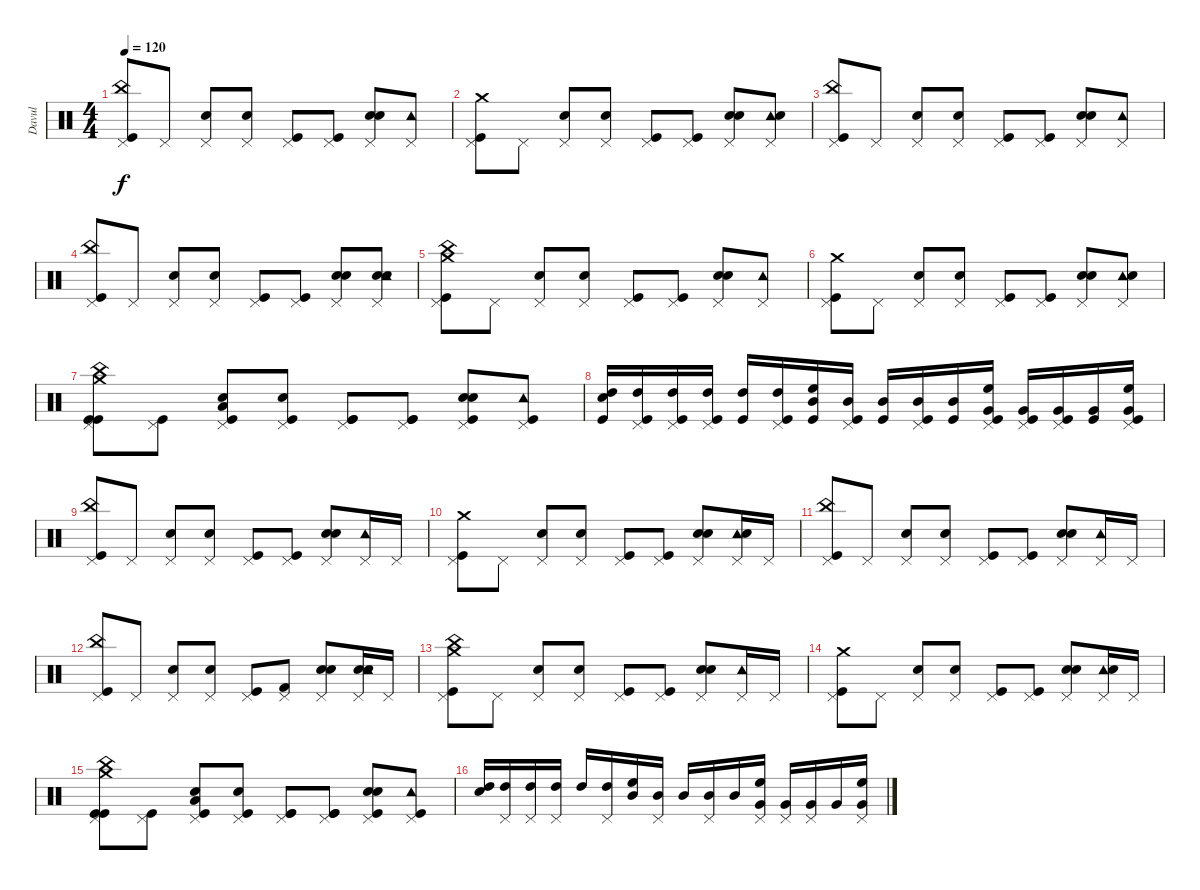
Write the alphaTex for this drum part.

\track ("Davul" "Davul") {instrument percussion}
\staff {score}
\articulation defaults
\ts (4 4)
\tempo 120
\clef neutral
\ks c
("Pedal Hi-Hat (hit)" "China (hit)" "Kick (hit)").8{dy f} "Pedal Hi-Hat (hit)".8 ("Pedal Hi-Hat (hit)" "Snare (hit) 2").8 ("Pedal Hi-Hat (hit)" "Hand Clap (hit)").8 ("Pedal Hi-Hat (hit)" "Kick (hit)").8 ("Pedal Hi-Hat (hit)" "Kick (hit)").8 ("Pedal Hi-Hat (hit)" "Hand Clap (hit)" "Snare (hit) 2").8 ("Pedal Hi-Hat (hit)" "Tambourine (hit)").8 |
("Pedal Hi-Hat (hit)" "Crash medium (hit)" "Kick (hit)").8 "Pedal Hi-Hat (hit)".8 ("Pedal Hi-Hat (hit)" "Snare (hit) 2").8 ("Pedal Hi-Hat (hit)" "Hand Clap (hit)").8 ("Pedal Hi-Hat (hit)" "Kick (hit)").8 ("Pedal Hi-Hat (hit)" "Kick (hit)").8 ("Pedal Hi-Hat (hit)" "Hand Clap (hit)" "Snare (hit) 2").8 ("Pedal Hi-Hat (hit)" "Tambourine (hit)" "Snare (hit) 2").8 |
("Pedal Hi-Hat (hit)" "China (hit)" "Kick (hit)").8 "Pedal Hi-Hat (hit)".8 ("Pedal Hi-Hat (hit)" "Snare (hit) 2").8 ("Pedal Hi-Hat (hit)" "Hand Clap (hit)").8 ("Pedal Hi-Hat (hit)" "Kick (hit)").8 ("Pedal Hi-Hat (hit)" "Kick (hit)").8 ("Pedal Hi-Hat (hit)" "Hand Clap (hit)" "Snare (hit) 2").8 ("Pedal Hi-Hat (hit)" "Tambourine (hit)").8 |
("Pedal Hi-Hat (hit)" "China (hit)" "Kick (hit)").8 "Pedal Hi-Hat (hit)".8 ("Pedal Hi-Hat (hit)" "Snare (hit) 2").8 ("Pedal Hi-Hat (hit)" "Hand Clap (hit)").8 ("Pedal Hi-Hat (hit)" "Kick (hit)").8 ("Pedal Hi-Hat (hit)" "Kick (hit)").8 ("Pedal Hi-Hat (hit)" "Hand Clap (hit)" "Snare (hit) 2").8 ("Pedal Hi-Hat (hit)" "Hand Clap (hit)" "Tambourine (hit)" "Snare (hit) 2").8 |
("Pedal Hi-Hat (hit)" "China (hit)" "Crash medium (hit)" "Kick (hit)").8 "Pedal Hi-Hat (hit)".8 ("Pedal Hi-Hat (hit)" "Snare (hit) 2").8 ("Pedal Hi-Hat (hit)" "Hand Clap (hit)").8 ("Pedal Hi-Hat (hit)" "Kick (hit)").8 ("Pedal Hi-Hat (hit)" "Kick (hit)").8 ("Pedal Hi-Hat (hit)" "Hand Clap (hit)" "Snare (hit) 2").8 ("Pedal Hi-Hat (hit)" "Tambourine (hit)").8 |
("Pedal Hi-Hat (hit)" "Crash medium (hit)" "Kick (hit)").8 "Pedal Hi-Hat (hit)".8 ("Pedal Hi-Hat (hit)" "Snare (hit) 2").8 ("Pedal Hi-Hat (hit)" "Hand Clap (hit)").8 ("Pedal Hi-Hat (hit)" "Kick (hit)").8 ("Pedal Hi-Hat (hit)" "Kick (hit)").8 ("Pedal Hi-Hat (hit)" "Hand Clap (hit)" "Snare (hit) 2").8 ("Pedal Hi-Hat (hit)" "Tambourine (hit)" "Snare (hit) 2").8 |
("Pedal Hi-Hat (hit)" "Kick (hit)" "China (hit)" "Crash medium (hit)" "Kick (hit)").8 ("Pedal Hi-Hat (hit)" "Kick (hit)").8 ("Pedal Hi-Hat (hit)" "Kick (hit)" "Snare (hit) 2" "Low Floor Tom (hit)").8 ("Pedal Hi-Hat (hit)" "Kick (hit)" "Hand Clap (hit)").8 ("Pedal Hi-Hat (hit)" "Kick (hit)" "Kick (hit)").8 ("Pedal Hi-Hat (hit)" "Kick (hit)" "Kick (hit)").8 ("Pedal Hi-Hat (hit)" "Kick (hit)" "Hand Clap (hit)" "Snare (hit) 2").8 ("Pedal Hi-Hat (hit)" "Kick (hit)" "Tambourine (hit)").8 |
("High Tom (hit)" "Snare (hit) 2" "Kick (hit)").16 ("Pedal Hi-Hat (hit)" "High Tom (hit)" "Kick (hit)").16 ("Pedal Hi-Hat (hit)" "High Tom (hit)" "Kick (hit)").16 ("Pedal Hi-Hat (hit)" "High Tom (hit)" "Kick (hit)").16 ("High Tom (hit)" "Kick (hit)").16 ("Pedal Hi-Hat (hit)" "High Tom (hit)" "Kick (hit)").16 ("Mid Tom (hit)" "High Floor Tom (hit)" "Kick (hit)").16 ("Pedal Hi-Hat (hit)" "Mid Tom (hit)" "Kick (hit)").16 ("Mid Tom (hit)" "Kick (hit)").16 ("Pedal Hi-Hat (hit)" "Mid Tom (hit)" "Kick (hit)").16 ("Mid Tom (hit)" "Kick (hit)").16 ("Pedal Hi-Hat (hit)" "Very Low Tom (hit)" "High Floor Tom (hit)" "Kick (hit)").16 ("Pedal Hi-Hat (hit)" "Very Low Tom (hit)" "Kick (hit)").16 ("Pedal Hi-Hat (hit)" "Very Low Tom (hit)" "Kick (hit)").16 ("Very Low Tom (hit)" "Kick (hit)").16 ("Pedal Hi-Hat (hit)" "Very Low Tom (hit)" "High Floor Tom (hit)" "Kick (hit)").16 |
("Pedal Hi-Hat (hit)" "China (hit)" "Kick (hit)").8 "Pedal Hi-Hat (hit)".8 ("Pedal Hi-Hat (hit)" "Snare (hit) 2").8 ("Pedal Hi-Hat (hit)" "Hand Clap (hit)").8 ("Pedal Hi-Hat (hit)" "Kick (hit)").8 ("Pedal Hi-Hat (hit)" "Kick (hit)").8 ("Pedal Hi-Hat (hit)" "Hand Clap (hit)" "Snare (hit) 2").8 ("Pedal Hi-Hat (hit)" "Tambourine (hit)").16 "Pedal Hi-Hat (hit)".16 |
("Pedal Hi-Hat (hit)" "Crash medium (hit)" "Kick (hit)").8 "Pedal Hi-Hat (hit)".8 ("Pedal Hi-Hat (hit)" "Snare (hit) 2").8 ("Pedal Hi-Hat (hit)" "Hand Clap (hit)").8 ("Pedal Hi-Hat (hit)" "Kick (hit)").8 ("Pedal Hi-Hat (hit)" "Kick (hit)").8 ("Pedal Hi-Hat (hit)" "Hand Clap (hit)" "Snare (hit) 2").8 ("Pedal Hi-Hat (hit)" "Tambourine (hit)" "Snare (hit) 2").16 "Pedal Hi-Hat (hit)".16 |
("Pedal Hi-Hat (hit)" "China (hit)" "Kick (hit)").8 "Pedal Hi-Hat (hit)".8 ("Pedal Hi-Hat (hit)" "Snare (hit) 2").8 ("Pedal Hi-Hat (hit)" "Hand Clap (hit)").8 ("Pedal Hi-Hat (hit)" "Kick (hit)").8 ("Pedal Hi-Hat (hit)" "Kick (hit)").8 ("Pedal Hi-Hat (hit)" "Hand Clap (hit)" "Snare (hit) 2").8 ("Pedal Hi-Hat (hit)" "Tambourine (hit)").16 "Pedal Hi-Hat (hit)".16 |
("Pedal Hi-Hat (hit)" "China (hit)" "Kick (hit)").8 "Pedal Hi-Hat (hit)".8 ("Pedal Hi-Hat (hit)" "Snare (hit) 2").8 ("Pedal Hi-Hat (hit)" "Hand Clap (hit)").8 ("Pedal Hi-Hat (hit)" "Kick (hit)").8 ("Pedal Hi-Hat (hit)" "Kick (hit) 2").8 ("Pedal Hi-Hat (hit)" "Hand Clap (hit)" "Snare (hit) 2").8 ("Pedal Hi-Hat (hit)" "Hand Clap (hit)" "Tambourine (hit)" "Snare (hit) 2").16 "Pedal Hi-Hat (hit)".16 |
("Pedal Hi-Hat (hit)" "China (hit)" "Crash medium (hit)" "Kick (hit)").8 "Pedal Hi-Hat (hit)".8 ("Pedal Hi-Hat (hit)" "Snare (hit) 2").8 ("Pedal Hi-Hat (hit)" "Hand Clap (hit)").8 ("Pedal Hi-Hat (hit)" "Kick (hit)").8 ("Pedal Hi-Hat (hit)" "Kick (hit)").8 ("Pedal Hi-Hat (hit)" "Hand Clap (hit)" "Snare (hit) 2").8 ("Pedal Hi-Hat (hit)" "Tambourine (hit)").16 "Pedal Hi-Hat (hit)".16 |
("Pedal Hi-Hat (hit)" "Crash medium (hit)" "Kick (hit)").8 "Pedal Hi-Hat (hit)".8 ("Pedal Hi-Hat (hit)" "Snare (hit) 2").8 ("Pedal Hi-Hat (hit)" "Hand Clap (hit)").8 ("Pedal Hi-Hat (hit)" "Kick (hit)").8 ("Pedal Hi-Hat (hit)" "Kick (hit)").8 ("Pedal Hi-Hat (hit)" "Hand Clap (hit)" "Snare (hit) 2").8 ("Pedal Hi-Hat (hit)" "Tambourine (hit)" "Snare (hit) 2").16 "Pedal Hi-Hat (hit)".16 |
("Pedal Hi-Hat (hit)" "Kick (hit)" "China (hit)" "Crash medium (hit)" "Kick (hit)").8 ("Pedal Hi-Hat (hit)" "Kick (hit)").8 ("Pedal Hi-Hat (hit)" "Kick (hit)" "Snare (hit) 2" "Low Floor Tom (hit)").8 ("Pedal Hi-Hat (hit)" "Kick (hit)" "Hand Clap (hit)").8 ("Pedal Hi-Hat (hit)" "Kick (hit)" "Kick (hit)").8 ("Pedal Hi-Hat (hit)" "Kick (hit)" "Kick (hit)").8 ("Pedal Hi-Hat (hit)" "Kick (hit)" "Hand Clap (hit)" "Snare (hit) 2").8 ("Pedal Hi-Hat (hit)" "Kick (hit)" "Tambourine (hit)").8 |
("High Tom (hit)" "Snare (hit) 2").16 ("Pedal Hi-Hat (hit)" "High Tom (hit)").16 ("Pedal Hi-Hat (hit)" "High Tom (hit)").16 ("Pedal Hi-Hat (hit)" "High Tom (hit)").16 "High Tom (hit)".16 ("Pedal Hi-Hat (hit)" "High Tom (hit)").16 ("Mid Tom (hit)" "High Floor Tom (hit)").16 ("Pedal Hi-Hat (hit)" "Mid Tom (hit)").16 "Mid Tom (hit)".16 ("Pedal Hi-Hat (hit)" "Mid Tom (hit)").16 "Mid Tom (hit)".16 ("Pedal Hi-Hat (hit)" "Very Low Tom (hit)" "High Floor Tom (hit)").16 ("Pedal Hi-Hat (hit)" "Very Low Tom (hit)").16 ("Pedal Hi-Hat (hit)" "Very Low Tom (hit)").16 "Very Low Tom (hit)".16 ("Pedal Hi-Hat (hit)" "Very Low Tom (hit)" "High Floor Tom (hit)").16
